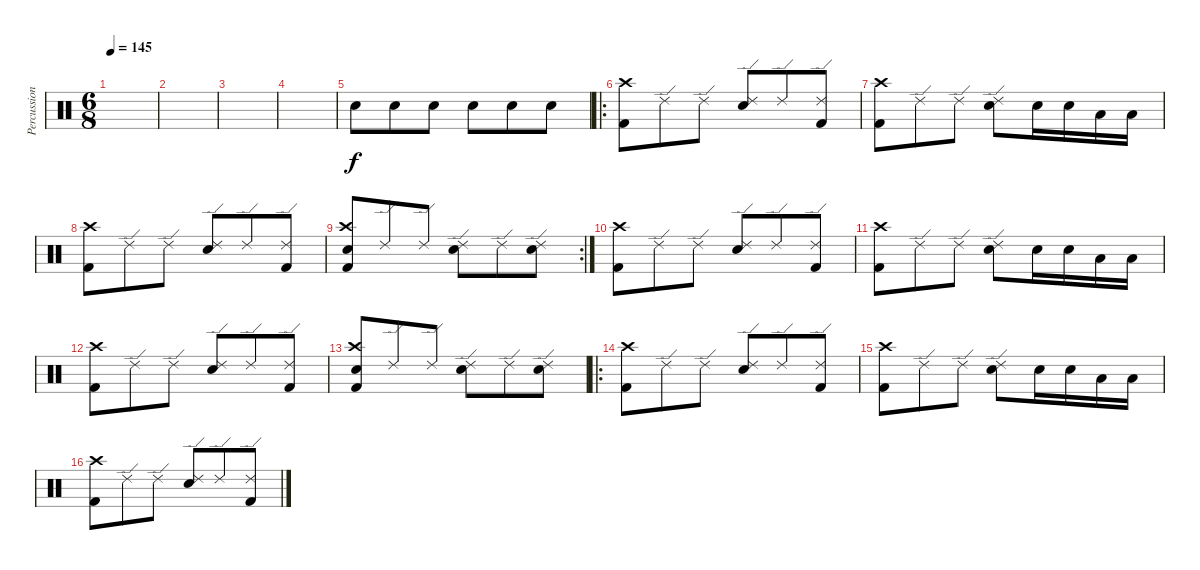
\track ("Percussion" "Percussion") {instrument percussion}
\staff {score}
\articulation defaults
\ts (6 8)
\tempo 145
\clef neutral
\ks c
|
|
|
|
"Electric Snare (hit)".8 "Electric Snare (hit)".8 "Electric Snare (hit)".8 "Electric Snare (hit)".8 "Electric Snare (hit)".8 "Electric Snare (hit)".8 |
\ro
("Crash high (hit)" "Kick (hit) 2").8 "Ride (edge) 2".8 "Ride (edge) 2".8 ("Ride (edge) 2" "Electric Snare (hit)").8 "Ride (edge) 2".8 ("Ride (edge) 2" "Kick (hit) 2").8 |
("Crash high (hit)" "Kick (hit) 2").8 "Ride (edge) 2".8 "Ride (edge) 2".8 ("Ride (edge) 2" "Electric Snare (hit)").8 "Electric Snare (hit)".16 "Electric Snare (hit)".16 "Low Tom (hit)".16 "Low Tom (hit)".16 |
("Crash high (hit)" "Kick (hit) 2").8 "Ride (edge) 2".8 "Ride (edge) 2".8 ("Ride (edge) 2" "Electric Snare (hit)").8 "Ride (edge) 2".8 ("Ride (edge) 2" "Kick (hit) 2").8 |
\rc 2
("Crash high (hit)" "Electric Snare (hit)" "Kick (hit) 2").8 "Ride (edge) 2".8 "Ride (edge) 2".8 ("Ride (edge) 2" "Electric Snare (hit)").8 "Ride (edge) 2".8 ("Ride (edge) 2" "Electric Snare (hit)").8 |
("Crash high (hit)" "Kick (hit) 2").8 "Ride (edge) 2".8 "Ride (edge) 2".8 ("Ride (edge) 2" "Electric Snare (hit)").8 "Ride (edge) 2".8 ("Ride (edge) 2" "Kick (hit) 2").8 |
("Crash high (hit)" "Kick (hit) 2").8 "Ride (edge) 2".8 "Ride (edge) 2".8 ("Ride (edge) 2" "Electric Snare (hit)").8 "Electric Snare (hit)".16 "Electric Snare (hit)".16 "Low Tom (hit)".16 "Low Tom (hit)".16 |
("Crash high (hit)" "Kick (hit) 2").8 "Ride (edge) 2".8 "Ride (edge) 2".8 ("Ride (edge) 2" "Electric Snare (hit)").8 "Ride (edge) 2".8 ("Ride (edge) 2" "Kick (hit) 2").8 |
("Crash high (hit)" "Electric Snare (hit)" "Kick (hit) 2").8 "Ride (edge) 2".8 "Ride (edge) 2".8 ("Ride (edge) 2" "Electric Snare (hit)").8 "Ride (edge) 2".8 ("Ride (edge) 2" "Electric Snare (hit)").8 |
\ro
("Crash high (hit)" "Kick (hit) 2").8 "Ride (edge) 2".8 "Ride (edge) 2".8 ("Ride (edge) 2" "Electric Snare (hit)").8 "Ride (edge) 2".8 ("Ride (edge) 2" "Kick (hit) 2").8 |
("Crash high (hit)" "Kick (hit) 2").8 "Ride (edge) 2".8 "Ride (edge) 2".8 ("Ride (edge) 2" "Electric Snare (hit)").8 "Electric Snare (hit)".16 "Electric Snare (hit)".16 "Low Tom (hit)".16 "Low Tom (hit)".16 |
("Crash high (hit)" "Kick (hit) 2").8 "Ride (edge) 2".8 "Ride (edge) 2".8 ("Ride (edge) 2" "Electric Snare (hit)").8 "Ride (edge) 2".8 ("Ride (edge) 2" "Kick (hit) 2").8
